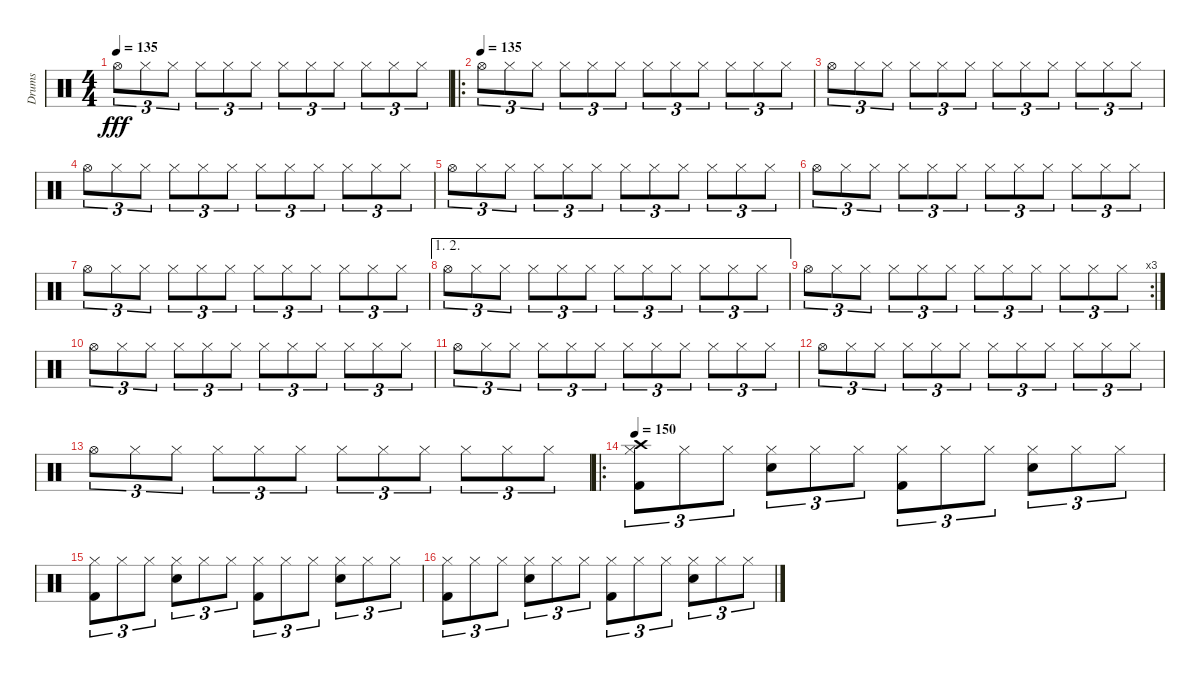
\track ("Drums" "Drums") {instrument percussion}
\staff {score}
\articulation defaults
\ts (4 4)
\tempo 135
\clef neutral
\ks c "Hi-Hat (open)".8{tu (3 2) dy fff} "Hi-Hat (closed)".8{tu (3 2)} "Hi-Hat (closed)".8{tu (3 2)} "Hi-Hat (closed)".8{tu (3 2)} "Hi-Hat (closed)".8{tu (3 2)} "Hi-Hat (closed)".8{tu (3 2)} "Hi-Hat (closed)".8{tu (3 2)} "Hi-Hat (closed)".8{tu (3 2)} "Hi-Hat (closed)".8{tu (3 2)} "Hi-Hat (closed)".8{tu (3 2)} "Hi-Hat (closed)".8{tu (3 2)} "Hi-Hat (closed)".8{tu (3 2)}
|
\ro
\tempo (135)
"Hi-Hat (open)".8{tu (3 2)} "Hi-Hat (closed)".8{tu (3 2)} "Hi-Hat (closed)".8{tu (3 2)} "Hi-Hat (closed)".8{tu (3 2)} "Hi-Hat (closed)".8{tu (3 2)} "Hi-Hat (closed)".8{tu (3 2)} "Hi-Hat (closed)".8{tu (3 2)} "Hi-Hat (closed)".8{tu (3 2)} "Hi-Hat (closed)".8{tu (3 2)} "Hi-Hat (closed)".8{tu (3 2)} "Hi-Hat (closed)".8{tu (3 2)} "Hi-Hat (closed)".8{tu (3 2)} |
"Hi-Hat (open)".8{tu (3 2)} "Hi-Hat (closed)".8{tu (3 2)} "Hi-Hat (closed)".8{tu (3 2)} "Hi-Hat (closed)".8{tu (3 2)} "Hi-Hat (closed)".8{tu (3 2)} "Hi-Hat (closed)".8{tu (3 2)} "Hi-Hat (closed)".8{tu (3 2)} "Hi-Hat (closed)".8{tu (3 2)} "Hi-Hat (closed)".8{tu (3 2)} "Hi-Hat (closed)".8{tu (3 2)} "Hi-Hat (closed)".8{tu (3 2)} "Hi-Hat (closed)".8{tu (3 2)} |
"Hi-Hat (open)".8{tu (3 2)} "Hi-Hat (closed)".8{tu (3 2)} "Hi-Hat (closed)".8{tu (3 2)} "Hi-Hat (closed)".8{tu (3 2)} "Hi-Hat (closed)".8{tu (3 2)} "Hi-Hat (closed)".8{tu (3 2)} "Hi-Hat (closed)".8{tu (3 2)} "Hi-Hat (closed)".8{tu (3 2)} "Hi-Hat (closed)".8{tu (3 2)} "Hi-Hat (closed)".8{tu (3 2)} "Hi-Hat (closed)".8{tu (3 2)} "Hi-Hat (closed)".8{tu (3 2)} |
"Hi-Hat (open)".8{tu (3 2)} "Hi-Hat (closed)".8{tu (3 2)} "Hi-Hat (closed)".8{tu (3 2)} "Hi-Hat (closed)".8{tu (3 2)} "Hi-Hat (closed)".8{tu (3 2)} "Hi-Hat (closed)".8{tu (3 2)} "Hi-Hat (closed)".8{tu (3 2)} "Hi-Hat (closed)".8{tu (3 2)} "Hi-Hat (closed)".8{tu (3 2)} "Hi-Hat (closed)".8{tu (3 2)} "Hi-Hat (closed)".8{tu (3 2)} "Hi-Hat (closed)".8{tu (3 2)} |
"Hi-Hat (open)".8{tu (3 2)} "Hi-Hat (closed)".8{tu (3 2)} "Hi-Hat (closed)".8{tu (3 2)} "Hi-Hat (closed)".8{tu (3 2)} "Hi-Hat (closed)".8{tu (3 2)} "Hi-Hat (closed)".8{tu (3 2)} "Hi-Hat (closed)".8{tu (3 2)} "Hi-Hat (closed)".8{tu (3 2)} "Hi-Hat (closed)".8{tu (3 2)} "Hi-Hat (closed)".8{tu (3 2)} "Hi-Hat (closed)".8{tu (3 2)} "Hi-Hat (closed)".8{tu (3 2)} |
"Hi-Hat (open)".8{tu (3 2)} "Hi-Hat (closed)".8{tu (3 2)} "Hi-Hat (closed)".8{tu (3 2)} "Hi-Hat (closed)".8{tu (3 2)} "Hi-Hat (closed)".8{tu (3 2)} "Hi-Hat (closed)".8{tu (3 2)} "Hi-Hat (closed)".8{tu (3 2)} "Hi-Hat (closed)".8{tu (3 2)} "Hi-Hat (closed)".8{tu (3 2)} "Hi-Hat (closed)".8{tu (3 2)} "Hi-Hat (closed)".8{tu (3 2)} "Hi-Hat (closed)".8{tu (3 2)} |
\ae (1 2)
"Hi-Hat (open)".8{tu (3 2)} "Hi-Hat (closed)".8{tu (3 2)} "Hi-Hat (closed)".8{tu (3 2)} "Hi-Hat (closed)".8{tu (3 2)} "Hi-Hat (closed)".8{tu (3 2)} "Hi-Hat (closed)".8{tu (3 2)} "Hi-Hat (closed)".8{tu (3 2)} "Hi-Hat (closed)".8{tu (3 2)} "Hi-Hat (closed)".8{tu (3 2)} "Hi-Hat (closed)".8{tu (3 2)} "Hi-Hat (closed)".8{tu (3 2)} "Hi-Hat (closed)".8{tu (3 2)} |
\rc 3 "Hi-Hat (open)".8{tu (3 2)} "Hi-Hat (closed)".8{tu (3 2)} "Hi-Hat (closed)".8{tu (3 2)} "Hi-Hat (closed)".8{tu (3 2)} "Hi-Hat (closed)".8{tu (3 2)} "Hi-Hat (closed)".8{tu (3 2)} "Hi-Hat (closed)".8{tu (3 2)} "Hi-Hat (closed)".8{tu (3 2)} "Hi-Hat (closed)".8{tu (3 2)} "Hi-Hat (closed)".8{tu (3 2)} "Hi-Hat (closed)".8{tu (3 2)} "Hi-Hat (closed)".8{tu (3 2)}
|
"Hi-Hat (open)".8{tu (3 2)} "Hi-Hat (closed)".8{tu (3 2)} "Hi-Hat (closed)".8{tu (3 2)} "Hi-Hat (closed)".8{tu (3 2)} "Hi-Hat (closed)".8{tu (3 2)} "Hi-Hat (closed)".8{tu (3 2)} "Hi-Hat (closed)".8{tu (3 2)} "Hi-Hat (closed)".8{tu (3 2)} "Hi-Hat (closed)".8{tu (3 2)} "Hi-Hat (closed)".8{tu (3 2)} "Hi-Hat (closed)".8{tu (3 2)} "Hi-Hat (closed)".8{tu (3 2)} |
"Hi-Hat (open)".8{tu (3 2)} "Hi-Hat (closed)".8{tu (3 2)} "Hi-Hat (closed)".8{tu (3 2)} "Hi-Hat (closed)".8{tu (3 2)} "Hi-Hat (closed)".8{tu (3 2)} "Hi-Hat (closed)".8{tu (3 2)} "Hi-Hat (closed)".8{tu (3 2)} "Hi-Hat (closed)".8{tu (3 2)} "Hi-Hat (closed)".8{tu (3 2)} "Hi-Hat (closed)".8{tu (3 2)} "Hi-Hat (closed)".8{tu (3 2)} "Hi-Hat (closed)".8{tu (3 2)} |
"Hi-Hat (open)".8{tu (3 2)} "Hi-Hat (closed)".8{tu (3 2)} "Hi-Hat (closed)".8{tu (3 2)} "Hi-Hat (closed)".8{tu (3 2)} "Hi-Hat (closed)".8{tu (3 2)} "Hi-Hat (closed)".8{tu (3 2)} "Hi-Hat (closed)".8{tu (3 2)} "Hi-Hat (closed)".8{tu (3 2)} "Hi-Hat (closed)".8{tu (3 2)} "Hi-Hat (closed)".8{tu (3 2)} "Hi-Hat (closed)".8{tu (3 2)} "Hi-Hat (closed)".8{tu (3 2)} |
"Hi-Hat (open)".8{tu (3 2)} "Hi-Hat (closed)".8{tu (3 2)} "Hi-Hat (closed)".8{tu (3 2)} "Hi-Hat (closed)".8{tu (3 2)} "Hi-Hat (closed)".8{tu (3 2)} "Hi-Hat (closed)".8{tu (3 2)} "Hi-Hat (closed)".8{tu (3 2)} "Hi-Hat (closed)".8{tu (3 2)} "Hi-Hat (closed)".8{tu (3 2)} "Hi-Hat (closed)".8{tu (3 2)} "Hi-Hat (closed)".8{tu (3 2)} "Hi-Hat (closed)".8{tu (3 2)} |
\ro
\tempo 150
("Hi-Hat (closed)" "Kick (hit) 2" "Crash high (hit)").8{tu (3 2)} "Hi-Hat (closed)".8{tu (3 2)} "Hi-Hat (closed)".8{tu (3 2)} ("Hi-Hat (closed)" "Snare (hit) 2").8{tu (3 2)} "Hi-Hat (closed)".8{tu (3 2)} "Hi-Hat (closed)".8{tu (3 2)} ("Hi-Hat (closed)" "Kick (hit) 2").8{tu (3 2)} "Hi-Hat (closed)".8{tu (3 2)} "Hi-Hat (closed)".8{tu (3 2)} ("Hi-Hat (closed)" "Snare (hit) 2").8{tu (3 2)} "Hi-Hat (closed)".8{tu (3 2)} "Hi-Hat (closed)".8{tu (3 2)} |
("Hi-Hat (closed)" "Kick (hit) 2").8{tu (3 2)} "Hi-Hat (closed)".8{tu (3 2)} "Hi-Hat (closed)".8{tu (3 2)} ("Hi-Hat (closed)" "Snare (hit) 2").8{tu (3 2)} "Hi-Hat (closed)".8{tu (3 2)} "Hi-Hat (closed)".8{tu (3 2)} ("Hi-Hat (closed)" "Kick (hit) 2").8{tu (3 2)} "Hi-Hat (closed)".8{tu (3 2)} "Hi-Hat (closed)".8{tu (3 2)} ("Hi-Hat (closed)" "Snare (hit) 2").8{tu (3 2)} "Hi-Hat (closed)".8{tu (3 2)} "Hi-Hat (closed)".8{tu (3 2)} |
("Hi-Hat (closed)" "Kick (hit) 2").8{tu (3 2)} "Hi-Hat (closed)".8{tu (3 2)} "Hi-Hat (closed)".8{tu (3 2)} ("Hi-Hat (closed)" "Snare (hit) 2").8{tu (3 2)} "Hi-Hat (closed)".8{tu (3 2)} "Hi-Hat (closed)".8{tu (3 2)} ("Hi-Hat (closed)" "Kick (hit) 2").8{tu (3 2)} "Hi-Hat (closed)".8{tu (3 2)} "Hi-Hat (closed)".8{tu (3 2)} ("Hi-Hat (closed)" "Snare (hit) 2").8{tu (3 2)} "Hi-Hat (closed)".8{tu (3 2)} "Hi-Hat (closed)".8{tu (3 2)}
